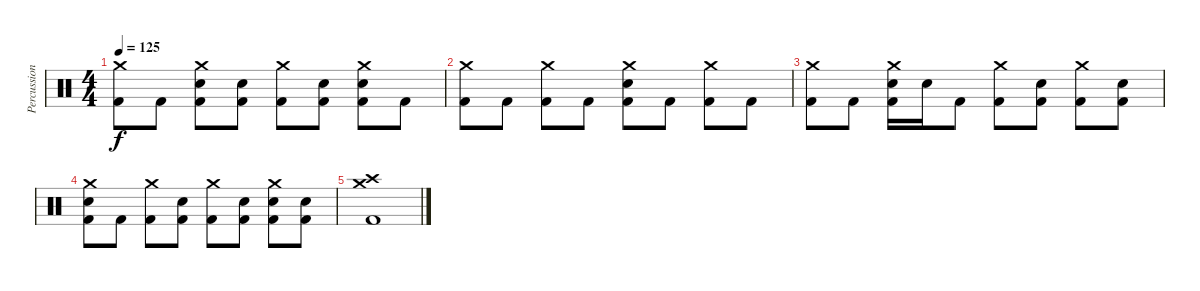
\track ("Percussion" "Percussion") {instrument percussion}
\staff {score}
\articulation defaults
\ts (4 4)
\tempo 125
\clef neutral
\ks c
("Crash medium (hit)" "Kick (hit) 2").8{dy f} "Kick (hit) 2".8 ("Crash medium (hit)" "Electric Snare (hit)" "Kick (hit) 2").8 ("Electric Snare (hit)" "Kick (hit) 2").8 ("Crash medium (hit)" "Kick (hit) 2").8 ("Electric Snare (hit)" "Kick (hit) 2").8 ("Crash medium (hit)" "Electric Snare (hit)" "Kick (hit) 2").8 "Kick (hit) 2".8 |
("Crash medium (hit)" "Kick (hit) 2").8 "Kick (hit) 2".8 ("Crash medium (hit)" "Kick (hit) 2").8 "Kick (hit) 2".8 ("Crash medium (hit)" "Electric Snare (hit)" "Kick (hit) 2").8 "Kick (hit) 2".8 ("Crash medium (hit)" "Kick (hit) 2").8 "Kick (hit) 2".8 |
("Crash medium (hit)" "Kick (hit) 2").8 "Kick (hit) 2".8 ("Crash medium (hit)" "Electric Snare (hit)" "Kick (hit) 2").16 "Electric Snare (hit)".16 "Kick (hit) 2".8 ("Crash medium (hit)" "Kick (hit) 2").8 ("Electric Snare (hit)" "Kick (hit) 2").8 ("Crash medium (hit)" "Kick (hit) 2").8 ("Electric Snare (hit)" "Kick (hit) 2").8 |
("Crash medium (hit)" "Electric Snare (hit)" "Kick (hit) 2").8 "Kick (hit) 2".8 ("Crash medium (hit)" "Kick (hit) 2").8 ("Electric Snare (hit)" "Kick (hit) 2").8 ("Crash medium (hit)" "Kick (hit) 2").8 ("Electric Snare (hit)" "Kick (hit) 2").8 ("Crash medium (hit)" "Electric Snare (hit)" "Kick (hit) 2").8 ("Electric Snare (hit)" "Kick (hit) 2").8 |
("Crash medium (hit)" "Crash high (hit)" "Kick (hit) 2").1
